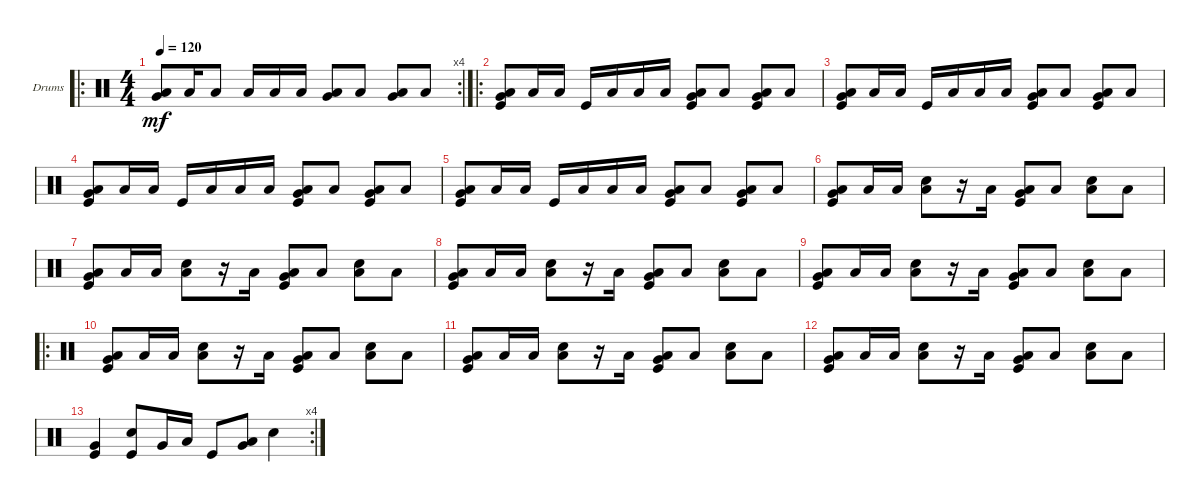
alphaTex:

\defaultSystemsLayout 4
\bracketExtendMode groupsimilarinstruments
\firstSystemTrackNameOrientation horizontal
\otherSystemsTrackNameOrientation horizontal
\track ("Drumkit" "Drums") {instrument percussion}
\staff {score}
\articulation defaults
\ro
\rc 4
\ts (4 4)
\tempo 120
\clef neutral
\scale
0.395683
\ks c
("Low Tom (hit)" "Very Low Tom (hit)").8{dy mf} "Low Tom (hit)".16 "Low Tom (hit)".8 "Low Tom (hit)".16 "Low Tom (hit)".16 "Low Tom (hit)".16 ("Low Tom (hit)" "Very Low Tom (hit)").8 "Low Tom (hit)".8 ("Very Low Tom (hit)" "Low Tom (hit)").8 "Low Tom (hit)".8 |
\ro
("Low Tom (hit)" "Very Low Tom (hit)" "Kick (hit)").8 "Low Tom (hit)".16 "Low Tom (hit)".16 "Kick (hit)".16 "Low Tom (hit)".16 "Low Tom (hit)".16 "Low Tom (hit)".16 ("Low Tom (hit)" "Very Low Tom (hit)" "Kick (hit)").8 "Low Tom (hit)".8 ("Very Low Tom (hit)" "Low Tom (hit)" "Kick (hit)").8 "Low Tom (hit)".8 |
("Low Tom (hit)" "Very Low Tom (hit)" "Kick (hit)").8 "Low Tom (hit)".16 "Low Tom (hit)".16 "Kick (hit)".16 "Low Tom (hit)".16 "Low Tom (hit)".16 "Low Tom (hit)".16 ("Low Tom (hit)" "Very Low Tom (hit)" "Kick (hit)").8 "Low Tom (hit)".8 ("Very Low Tom (hit)" "Low Tom (hit)" "Kick (hit)").8 "Low Tom (hit)".8 |
("Low Tom (hit)" "Very Low Tom (hit)" "Kick (hit)").8 "Low Tom (hit)".16 "Low Tom (hit)".16 "Kick (hit)".16 "Low Tom (hit)".16 "Low Tom (hit)".16 "Low Tom (hit)".16 ("Low Tom (hit)" "Very Low Tom (hit)" "Kick (hit)").8 "Low Tom (hit)".8 ("Very Low Tom (hit)" "Low Tom (hit)" "Kick (hit)").8 "Low Tom (hit)".8 |
("Low Tom (hit)" "Very Low Tom (hit)" "Kick (hit)").8 "Low Tom (hit)".16 "Low Tom (hit)".16 "Kick (hit)".16 "Low Tom (hit)".16 "Low Tom (hit)".16 "Low Tom (hit)".16 ("Low Tom (hit)" "Very Low Tom (hit)" "Kick (hit)").8 "Low Tom (hit)".8 ("Very Low Tom (hit)" "Low Tom (hit)" "Kick (hit)").8 "Low Tom (hit)".8 |
("Kick (hit)" "Low Tom (hit)" "Very Low Tom (hit)").8 "Low Tom (hit)".16 "Low Tom (hit)".16 ("Snare (hit) 2" "Low Tom (hit)").8 r.16 "Low Tom (hit)".16 ("Kick (hit)" "Low Tom (hit)" "Very Low Tom (hit)").8 "Low Tom (hit)".8 ("Snare (hit) 2" "Low Tom (hit)").8 "Low Tom (hit)".8 |
("Kick (hit)" "Low Tom (hit)" "Very Low Tom (hit)").8 "Low Tom (hit)".16 "Low Tom (hit)".16 ("Snare (hit) 2" "Low Tom (hit)").8 r.16 "Low Tom (hit)".16 ("Kick (hit)" "Low Tom (hit)" "Very Low Tom (hit)").8 "Low Tom (hit)".8 ("Snare (hit) 2" "Low Tom (hit)").8 "Low Tom (hit)".8 |
("Kick (hit)" "Low Tom (hit)" "Very Low Tom (hit)").8 "Low Tom (hit)".16 "Low Tom (hit)".16 ("Snare (hit) 2" "Low Tom (hit)").8 r.16 "Low Tom (hit)".16 ("Kick (hit)" "Low Tom (hit)" "Very Low Tom (hit)").8 "Low Tom (hit)".8 ("Snare (hit) 2" "Low Tom (hit)").8 "Low Tom (hit)".8 |
("Kick (hit)" "Low Tom (hit)" "Very Low Tom (hit)").8 "Low Tom (hit)".16 "Low Tom (hit)".16 ("Snare (hit) 2" "Low Tom (hit)").8 r.16 "Low Tom (hit)".16 ("Kick (hit)" "Low Tom (hit)" "Very Low Tom (hit)").8 "Low Tom (hit)".8 ("Snare (hit) 2" "Low Tom (hit)").8 "Low Tom (hit)".8 |
\ro
("Kick (hit)" "Low Tom (hit)" "Very Low Tom (hit)").8 "Low Tom (hit)".16 "Low Tom (hit)".16 ("Snare (hit) 2" "Low Tom (hit)").8 r.16 "Low Tom (hit)".16 ("Kick (hit)" "Low Tom (hit)" "Very Low Tom (hit)").8 "Low Tom (hit)".8 ("Snare (hit) 2" "Low Tom (hit)").8 "Low Tom (hit)".8 |
("Kick (hit)" "Low Tom (hit)" "Very Low Tom (hit)").8 "Low Tom (hit)".16 "Low Tom (hit)".16 ("Snare (hit) 2" "Low Tom (hit)").8 r.16 "Low Tom (hit)".16 ("Kick (hit)" "Low Tom (hit)" "Very Low Tom (hit)").8 "Low Tom (hit)".8 ("Snare (hit) 2" "Low Tom (hit)").8 "Low Tom (hit)".8 |
("Kick (hit)" "Low Tom (hit)" "Very Low Tom (hit)").8 "Low Tom (hit)".16 "Low Tom (hit)".16 ("Snare (hit) 2" "Low Tom (hit)").8 r.16 "Low Tom (hit)".16 ("Kick (hit)" "Low Tom (hit)" "Very Low Tom (hit)").8 "Low Tom (hit)".8 ("Snare (hit) 2" "Low Tom (hit)").8 "Low Tom (hit)".8 |
\rc 4
("Kick (hit)" "Very Low Tom (hit)").4 ("Snare (hit) 2" "Kick (hit)").8 "Very Low Tom (hit)".16 "Low Tom (hit)".16 "Kick (hit)".8 ("Very Low Tom (hit)" "Low Tom (hit)").8 "Snare (hit) 2".4
